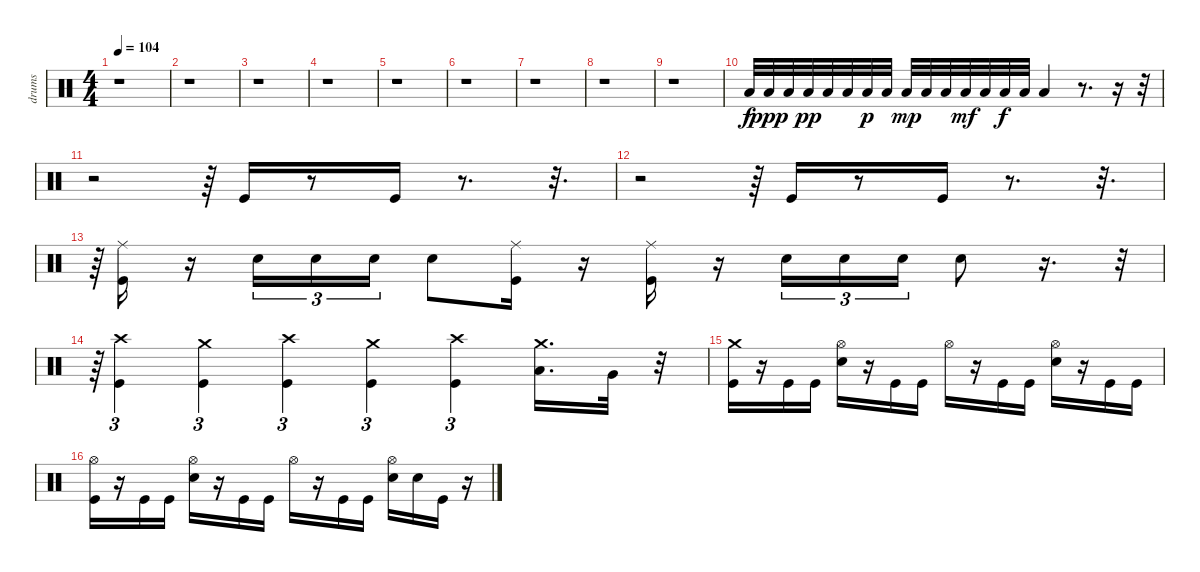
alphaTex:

\track ("drums" "drums") {instrument percussion}
\staff {score}
\articulation defaults
\ts (4 4)
\tempo 104
\clef neutral
\ks c
r.1{dy f} |
r.1 |
r.1 |
r.1 |
r.1 |
r.1 |
r.1 |
r.1 |
r.1 |
"Low Floor Tom (hit)".32 "Low Floor Tom (hit)".32{dy ppp} "Low Floor Tom (hit)".32 "Low Floor Tom (hit)".32{dy pp} "Low Floor Tom (hit)".32 "Low Floor Tom (hit)".32 "Low Floor Tom (hit)".32{dy p} "Low Floor Tom (hit)".32 "Low Floor Tom (hit)".32{dy mp} "Low Floor Tom (hit)".32 "Low Floor Tom (hit)".32 "Low Floor Tom (hit)".32{dy mf} "Low Floor Tom (hit)".32 "Low Floor Tom (hit)".32{dy f} "Low Floor Tom (hit)".32 "Low Floor Tom (hit)".4 r.8{d} r.16 r.32 |
r.2 r.64 "Kick (hit)".16 r.8 "Kick (hit)".16 r.8{d} r.32{d} |
r.2 r.64 "Kick (hit)".16 r.8 "Kick (hit)".16 r.8{d} r.32{d} |
r.64{tu (3 2)} ("Ride (middle)" "Kick (hit)").16 r.16 "Electric Snare (hit)".16{tu (3 2)} "Electric Snare (hit)".16{tu (3 2)} "Electric Snare (hit)".16{tu (3 2)} "Electric Snare (hit)".8 ("Ride (middle)" "Kick (hit)").16 r.16 ("Ride (middle)" "Kick (hit)").16 r.16 "Electric Snare (hit)".16{tu (3 2)} "Electric Snare (hit)".16{tu (3 2)} "Electric Snare (hit)".16{tu (3 2)} "Electric Snare (hit)".8 r.16{d} r.32{tu (3 2)} |
r.64{tu (3 2)} ("Crash high (hit)" "Kick (hit)").4{tu (3 2)} ("Crash medium (hit)" "Kick (hit)").4{tu (3 2)} ("Crash high (hit)" "Kick (hit)").4{tu (3 2)} ("Crash medium (hit)" "Kick (hit)").4{tu (3 2)} ("Crash high (hit)" "Kick (hit)").4{tu (3 2)} ("Crash medium (hit)" "Low Tom (hit)").16{d} "Very Low Tom (hit)".32 r.32 |
("Crash medium (hit)" "Kick (hit)").16 r.16 "Kick (hit)".16 "Kick (hit)".16 ("Hi-Hat (open)" "Electric Snare (hit)").16 r.16 "Kick (hit)".16 "Kick (hit)".16 "Hi-Hat (open)".16 r.16 "Kick (hit)".16 "Kick (hit)".16 ("Hi-Hat (open)" "Electric Snare (hit)").16 r.16 "Kick (hit)".16 "Kick (hit)".16 |
("Hi-Hat (open)" "Kick (hit)").16 r.16 "Kick (hit)".16 "Kick (hit)".16 ("Hi-Hat (open)" "Electric Snare (hit)").16 r.16 "Kick (hit)".16 "Kick (hit)".16 "Hi-Hat (open)".16 r.16 "Kick (hit)".16 "Kick (hit)".16 ("Hi-Hat (open)" "Electric Snare (hit)").16 "Electric Snare (hit)".16 "Kick (hit)".16 r.16
